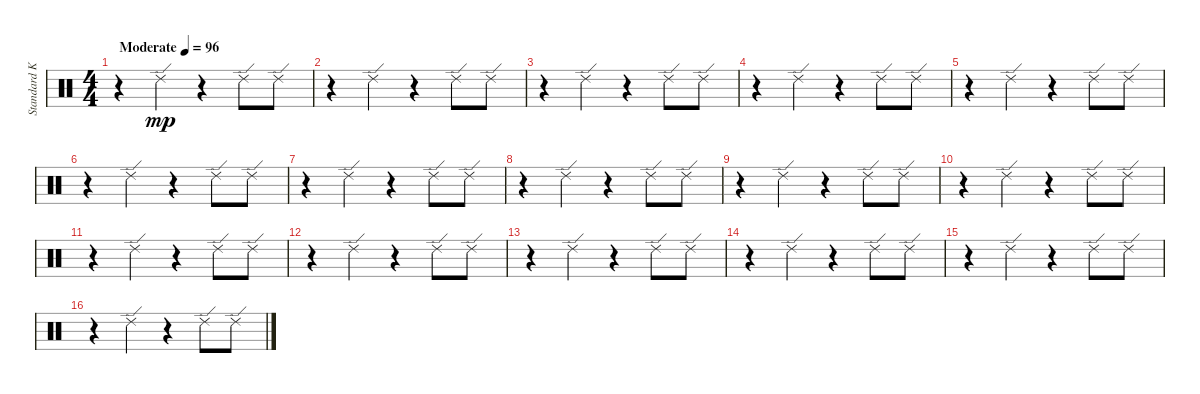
\track ("Standard Kit" "Standard K") {instrument percussion}
\staff {score}
\articulation defaults
\ts (4 4)
\tempo (96 "Moderate")
\clef neutral
\ks c
r.4{dy mp} "Ride (edge) 2".4 r.4 "Ride (edge) 2".8 "Ride (edge) 2".8 |
r.4 "Ride (edge) 2".4 r.4 "Ride (edge) 2".8 "Ride (edge) 2".8 |
r.4 "Ride (edge) 2".4 r.4 "Ride (edge) 2".8 "Ride (edge) 2".8 |
r.4 "Ride (edge) 2".4 r.4 "Ride (edge) 2".8 "Ride (edge) 2".8 |
r.4 "Ride (edge) 2".4 r.4 "Ride (edge) 2".8 "Ride (edge) 2".8 |
r.4 "Ride (edge) 2".4 r.4 "Ride (edge) 2".8 "Ride (edge) 2".8 |
r.4 "Ride (edge) 2".4 r.4 "Ride (edge) 2".8 "Ride (edge) 2".8 |
r.4 "Ride (edge) 2".4 r.4 "Ride (edge) 2".8 "Ride (edge) 2".8 |
r.4 "Ride (edge) 2".4 r.4 "Ride (edge) 2".8 "Ride (edge) 2".8 |
r.4 "Ride (edge) 2".4 r.4 "Ride (edge) 2".8 "Ride (edge) 2".8 |
r.4 "Ride (edge) 2".4 r.4 "Ride (edge) 2".8 "Ride (edge) 2".8 |
r.4 "Ride (edge) 2".4 r.4 "Ride (edge) 2".8 "Ride (edge) 2".8 |
r.4 "Ride (edge) 2".4 r.4 "Ride (edge) 2".8 "Ride (edge) 2".8 |
r.4 "Ride (edge) 2".4 r.4 "Ride (edge) 2".8 "Ride (edge) 2".8 |
r.4 "Ride (edge) 2".4 r.4 "Ride (edge) 2".8 "Ride (edge) 2".8 |
r.4 "Ride (edge) 2".4 r.4 "Ride (edge) 2".8 "Ride (edge) 2".8
